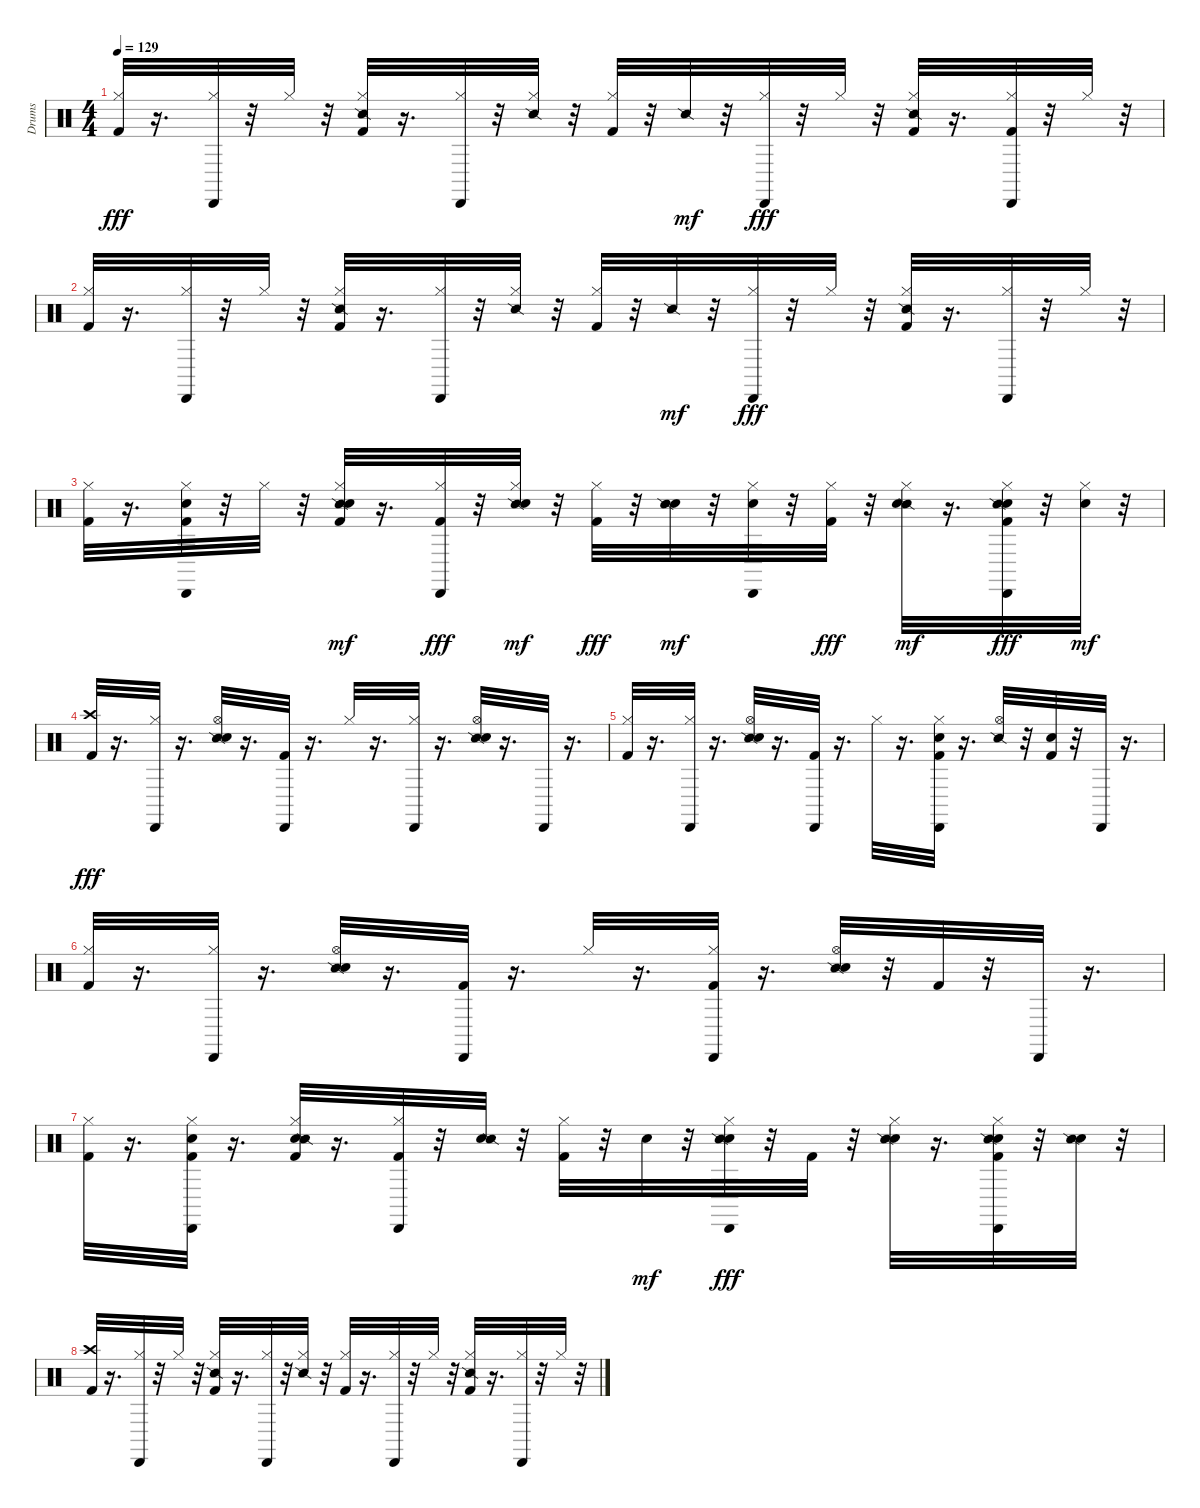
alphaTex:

\track ("Drums" "Drums") {instrument percussion}
\staff {score}
\articulation defaults
\ts (4 4)
\tempo 129
\clef neutral
\ks c
("Kick (hit) 2" "Hi-Hat (closed)").32{dy fff} r.16{d} ("Cabasa (hit)" "Hi-Hat (closed)").32 r.32 "Hi-Hat (closed)".32 r.32 ("Snare (side stick) 2" "Hi-Hat (closed)" "Kick (hit) 2").32 r.16{d} ("Cabasa (hit)" "Hi-Hat (closed)").32 r.32 ("Snare (side stick) 2" "Hi-Hat (closed)").32 r.32 ("Kick (hit) 2" "Hi-Hat (closed)").32 r.32 "Snare (side stick) 2".32{dy mf} r.32 ("Cabasa (hit)" "Hi-Hat (closed)").32{dy fff} r.32 "Hi-Hat (closed)".32 r.32 ("Snare (side stick) 2" "Hi-Hat (closed)" "Kick (hit) 2").32 r.16{d} ("Kick (hit) 2" "Cabasa (hit)" "Hi-Hat (closed)").32 r.32 "Hi-Hat (closed)".32 r.32 |
("Kick (hit) 2" "Hi-Hat (closed)").32 r.16{d} ("Cabasa (hit)" "Hi-Hat (closed)").32 r.32 "Hi-Hat (closed)".32 r.32 ("Snare (side stick) 2" "Hi-Hat (closed)" "Kick (hit) 2").32 r.16{d} ("Cabasa (hit)" "Hi-Hat (closed)").32 r.32 ("Snare (side stick) 2" "Hi-Hat (closed)").32 r.32 ("Kick (hit) 2" "Hi-Hat (closed)").32 r.32 "Snare (side stick) 2".32{dy mf} r.32 ("Cabasa (hit)" "Hi-Hat (closed)").32{dy fff} r.32 "Hi-Hat (closed)".32 r.32 ("Snare (side stick) 2" "Hi-Hat (closed)" "Kick (hit) 2").32 r.16{d} ("Cabasa (hit)" "Hi-Hat (closed)").32 r.32 "Hi-Hat (closed)".32 r.32 |
("Kick (hit) 2" "Hi-Hat (closed)").32 r.16{d} ("Cabasa (hit)" "Hi-Hat (closed)" "Hand Clap (hit)" "Kick (hit) 2").32 r.32 "Hi-Hat (closed)".32 r.32 ("Snare (side stick) 2" "Hi-Hat (closed)" "Kick (hit) 2" "Hand Clap (hit)").32{dy mf} r.16{d} ("Cabasa (hit)" "Hi-Hat (closed)" "Kick (hit) 2").32{dy fff} r.32 ("Snare (side stick) 2" "Hi-Hat (closed)" "Hand Clap (hit)").32{dy mf} r.32 ("Kick (hit) 2" "Hi-Hat (closed)").32{dy fff} r.32 ("Hand Clap (hit)" "Snare (side stick) 2").32{dy mf} r.32 ("Cabasa (hit)" "Hi-Hat (closed)" "Hand Clap (hit)").32 r.32 ("Hi-Hat (closed)" "Kick (hit) 2").32{dy fff} r.32 ("Snare (side stick) 2" "Hi-Hat (closed)" "Hand Clap (hit)").32{dy mf} r.16{d} ("Kick (hit) 2" "Cabasa (hit)" "Hi-Hat (closed)" "Hand Clap (hit)" "Snare (side stick) 2").32{dy fff} r.32 ("Hi-Hat (closed)" "Hand Clap (hit)").32{dy mf} r.32 |
("Kick (hit) 2" "Crash high (hit)").32{dy fff} r.16{d} ("Hi-Hat (closed)" "Cabasa (hit)").32 r.16{d} ("Snare (side stick) 2" "Hi-Hat (open)" "Hand Clap (hit)").32 r.16{d} ("Kick (hit) 2" "Cabasa (hit)").32 r.16{d} "Hi-Hat (closed)".32 r.16{d} ("Hi-Hat (closed)" "Cabasa (hit)").32 r.16{d} ("Snare (side stick) 2" "Hi-Hat (open)" "Hand Clap (hit)").32 r.16{d} "Cabasa (hit)".32 r.16{d} |
("Kick (hit) 2" "Hi-Hat (closed)").32 r.16{d} ("Hi-Hat (closed)" "Cabasa (hit)").32 r.16{d} ("Snare (side stick) 2" "Hi-Hat (open)" "Hand Clap (hit)").32 r.16{d} ("Kick (hit) 2" "Cabasa (hit)").32 r.16{d} "Hi-Hat (closed)".32 r.16{d} ("Kick (hit) 2" "Hi-Hat (closed)" "Hand Clap (hit)" "Cabasa (hit)").32 r.16{d} ("Snare (side stick) 2" "Hi-Hat (open)").32 r.32 ("Kick (hit) 2" "Hand Clap (hit)").32 r.32 "Cabasa (hit)".32 r.16{d} |
("Kick (hit) 2" "Hi-Hat (closed)").32 r.16{d} ("Hi-Hat (closed)" "Cabasa (hit)").32 r.16{d} ("Snare (side stick) 2" "Hi-Hat (open)" "Hand Clap (hit)").32 r.16{d} ("Kick (hit) 2" "Cabasa (hit)").32 r.16{d} "Hi-Hat (closed)".32 r.16{d} ("Kick (hit) 2" "Hi-Hat (closed)" "Cabasa (hit)").32 r.16{d} ("Snare (side stick) 2" "Hi-Hat (open)" "Hand Clap (hit)").32 r.32 "Kick (hit) 2".32 r.32 "Cabasa (hit)".32 r.16{d} |
("Kick (hit) 2" "Hi-Hat (closed)").32 r.16{d} ("Kick (hit) 2" "Hi-Hat (closed)" "Hand Clap (hit)" "Cabasa (hit)").32 r.16{d} ("Kick (hit) 2" "Hi-Hat (closed)" "Hand Clap (hit)" "Snare (side stick) 2").32 r.16{d} ("Kick (hit) 2" "Hi-Hat (closed)" "Cabasa (hit)").32 r.32 ("Hand Clap (hit)" "Snare (side stick) 2").32 r.32 ("Kick (hit) 2" "Hi-Hat (closed)").32 r.32 "Hand Clap (hit)".32{dy mf} r.32 ("Hi-Hat (closed)" "Hand Clap (hit)" "Snare (side stick) 2" "Cabasa (hit)").32{dy fff} r.32 "Kick (hit) 2".32 r.32 ("Hi-Hat (closed)" "Hand Clap (hit)" "Snare (side stick) 2").32 r.16{d} ("Kick (hit) 2" "Hi-Hat (closed)" "Hand Clap (hit)" "Snare (side stick) 2" "Cabasa (hit)").32 r.32 ("Hand Clap (hit)" "Snare (side stick) 2").32 r.32 |
("Kick (hit) 2" "Crash high (hit)").32 r.16{d} ("Cabasa (hit)" "Hi-Hat (closed)").32 r.32 "Hi-Hat (closed)".32 r.32 ("Snare (side stick) 2" "Hi-Hat (closed)" "Kick (hit) 2").32 r.16{d} ("Cabasa (hit)" "Hi-Hat (closed)").32 r.32 ("Snare (side stick) 2" "Hi-Hat (closed)").32 r.32 ("Kick (hit) 2" "Hi-Hat (closed)").32 r.16{d} ("Cabasa (hit)" "Hi-Hat (closed)").32 r.32 "Hi-Hat (closed)".32 r.32 ("Snare (side stick) 2" "Hi-Hat (closed)" "Kick (hit) 2").32 r.16{d} ("Cabasa (hit)" "Hi-Hat (closed)").32 r.32 "Hi-Hat (closed)".32 r.32
